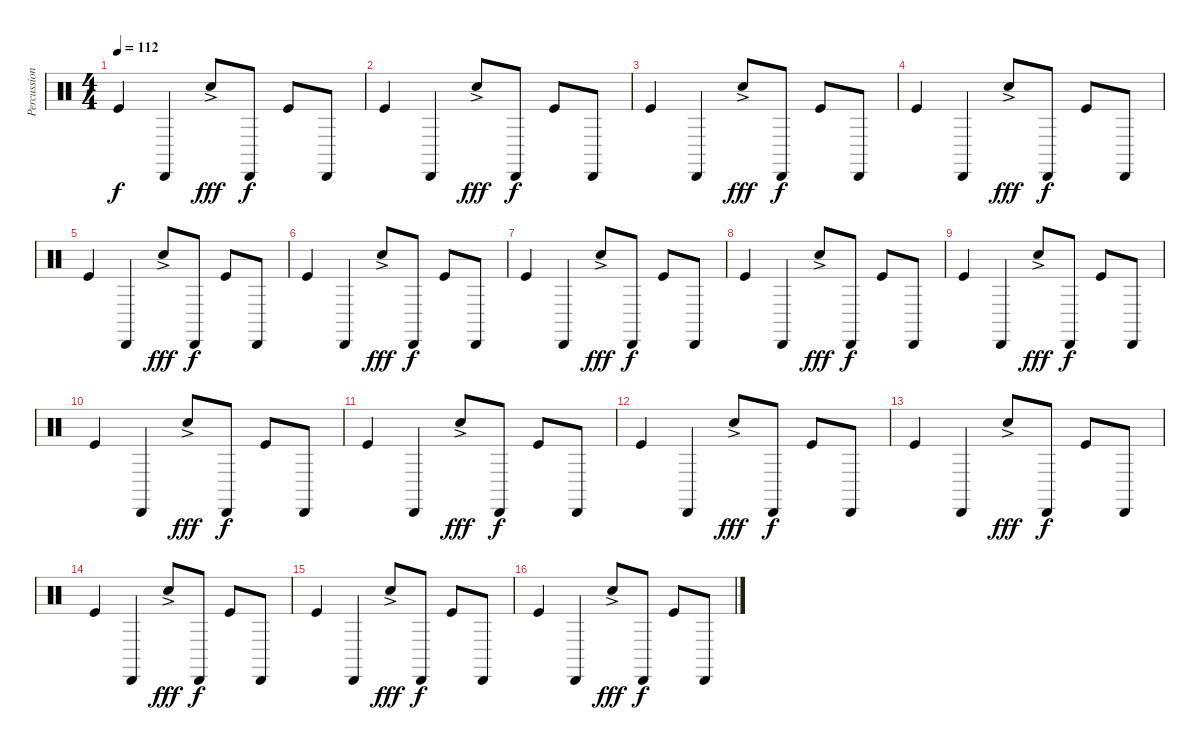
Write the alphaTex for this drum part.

\track ("Percussion" "Percussion") {instrument percussion}
\staff {score}
\articulation defaults
\ts (4 4)
\tempo 112
\clef neutral
\ks c "Kick (hit)".4{dy f} "Cabasa (hit)".4 "Snare (hit) 2"{ac}.8{dy fff} "Cabasa (hit)".8{dy f} "Kick (hit)".8 "Cabasa (hit)".8
|
"Kick (hit)".4 "Cabasa (hit)".4 "Snare (hit) 2"{ac}.8{dy fff} "Cabasa (hit)".8{dy f} "Kick (hit)".8 "Cabasa (hit)".8 |
"Kick (hit)".4 "Cabasa (hit)".4 "Snare (hit) 2"{ac}.8{dy fff} "Cabasa (hit)".8{dy f} "Kick (hit)".8 "Cabasa (hit)".8 |
"Kick (hit)".4 "Cabasa (hit)".4 "Snare (hit) 2"{ac}.8{dy fff} "Cabasa (hit)".8{dy f} "Kick (hit)".8 "Cabasa (hit)".8 |
"Kick (hit)".4 "Cabasa (hit)".4 "Snare (hit) 2"{ac}.8{dy fff} "Cabasa (hit)".8{dy f} "Kick (hit)".8 "Cabasa (hit)".8 |
"Kick (hit)".4 "Cabasa (hit)".4 "Snare (hit) 2"{ac}.8{dy fff} "Cabasa (hit)".8{dy f} "Kick (hit)".8 "Cabasa (hit)".8 |
"Kick (hit)".4 "Cabasa (hit)".4 "Snare (hit) 2"{ac}.8{dy fff} "Cabasa (hit)".8{dy f} "Kick (hit)".8 "Cabasa (hit)".8 |
"Kick (hit)".4 "Cabasa (hit)".4 "Snare (hit) 2"{ac}.8{dy fff} "Cabasa (hit)".8{dy f} "Kick (hit)".8 "Cabasa (hit)".8 |
"Kick (hit)".4 "Cabasa (hit)".4 "Snare (hit) 2"{ac}.8{dy fff} "Cabasa (hit)".8{dy f} "Kick (hit)".8 "Cabasa (hit)".8 |
"Kick (hit)".4 "Cabasa (hit)".4 "Snare (hit) 2"{ac}.8{dy fff} "Cabasa (hit)".8{dy f} "Kick (hit)".8 "Cabasa (hit)".8 |
"Kick (hit)".4 "Cabasa (hit)".4 "Snare (hit) 2"{ac}.8{dy fff} "Cabasa (hit)".8{dy f} "Kick (hit)".8 "Cabasa (hit)".8 |
"Kick (hit)".4 "Cabasa (hit)".4 "Snare (hit) 2"{ac}.8{dy fff} "Cabasa (hit)".8{dy f} "Kick (hit)".8 "Cabasa (hit)".8 |
"Kick (hit)".4 "Cabasa (hit)".4 "Snare (hit) 2"{ac}.8{dy fff} "Cabasa (hit)".8{dy f} "Kick (hit)".8 "Cabasa (hit)".8 |
"Kick (hit)".4 "Cabasa (hit)".4 "Snare (hit) 2"{ac}.8{dy fff} "Cabasa (hit)".8{dy f} "Kick (hit)".8 "Cabasa (hit)".8 |
"Kick (hit)".4 "Cabasa (hit)".4 "Snare (hit) 2"{ac}.8{dy fff} "Cabasa (hit)".8{dy f} "Kick (hit)".8 "Cabasa (hit)".8 |
"Kick (hit)".4 "Cabasa (hit)".4 "Snare (hit) 2"{ac}.8{dy fff} "Cabasa (hit)".8{dy f} "Kick (hit)".8 "Cabasa (hit)".8
